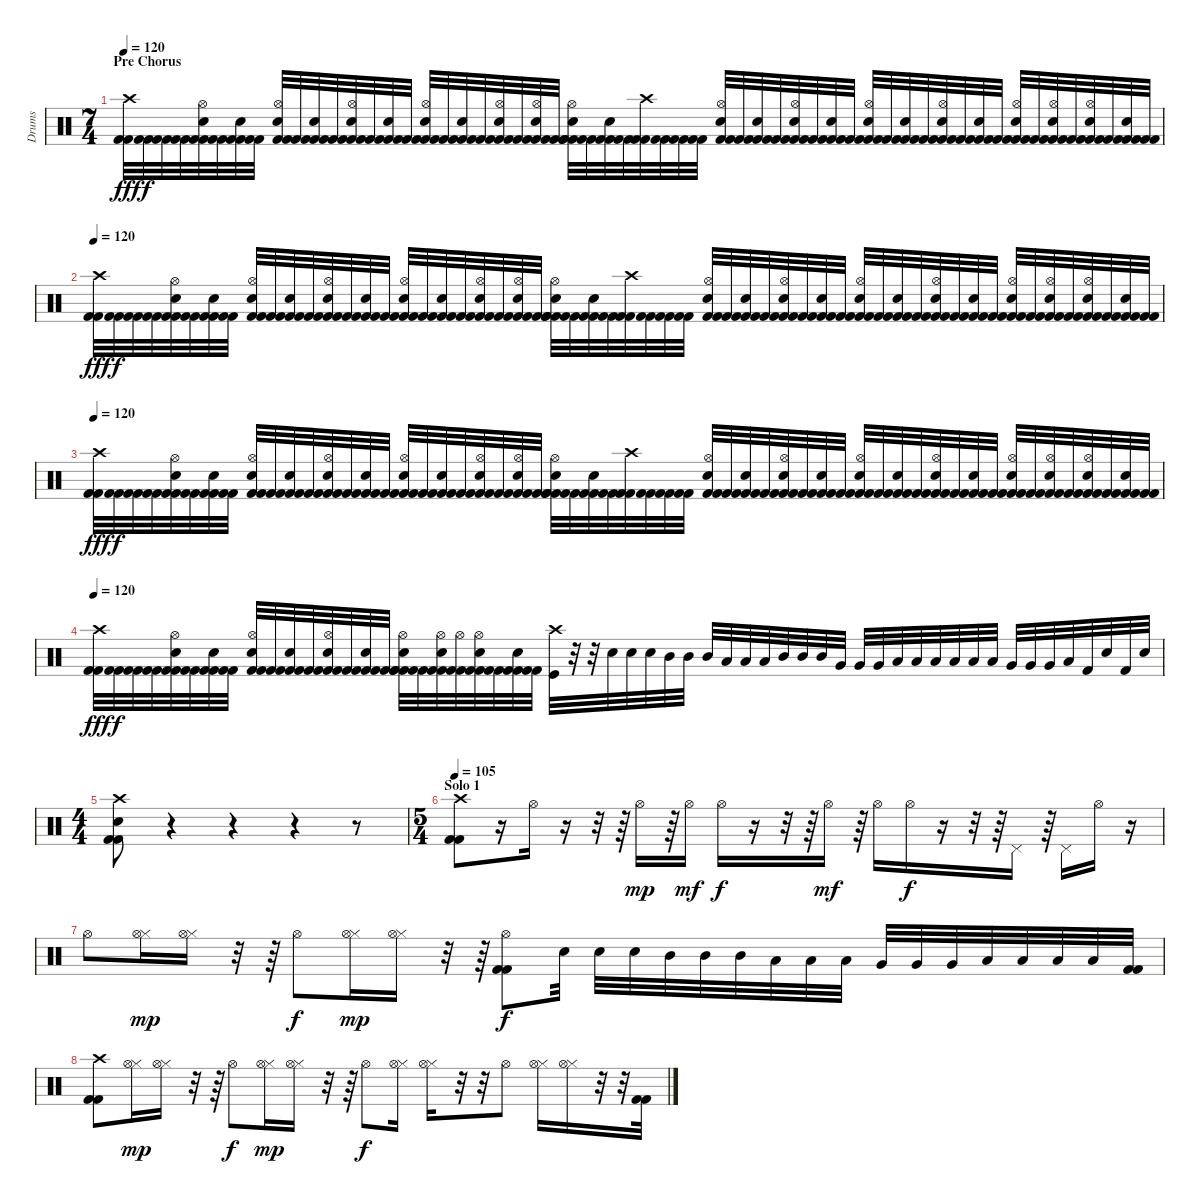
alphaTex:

\track ("Drums" "Drums") {instrument percussion}
\staff {score}
\articulation defaults
\ts (7 4)
\section ("" "Pre Chorus")
\tempo 120
\clef neutral
\ks c
("Crash high (hit)" "Kick (hit) 2" "Kick (hit) 2").32{dy fff} ("Kick (hit) 2" "Kick (hit) 2").32{dy f} ("Kick (hit) 2" "Kick (hit) 2").32 ("Kick (hit) 2" "Kick (hit) 2").32 ("Hi-Hat (open)" "Electric Snare (hit)" "Kick (hit) 2" "Kick (hit) 2").32 ("Kick (hit) 2" "Kick (hit) 2").32 ("Electric Snare (hit)" "Kick (hit) 2" "Kick (hit) 2").32 ("Kick (hit) 2" "Kick (hit) 2").32 ("Hi-Hat (open)" "Electric Snare (hit)" "Kick (hit) 2" "Kick (hit) 2").32 ("Kick (hit) 2" "Kick (hit) 2").32 ("Electric Snare (hit)" "Kick (hit) 2" "Kick (hit) 2").32 ("Kick (hit) 2" "Kick (hit) 2").32 ("Hi-Hat (open)" "Electric Snare (hit)" "Kick (hit) 2" "Kick (hit) 2").32 ("Kick (hit) 2" "Kick (hit) 2").32 ("Electric Snare (hit)" "Kick (hit) 2" "Kick (hit) 2").32 ("Kick (hit) 2" "Kick (hit) 2").32 ("Hi-Hat (open)" "Electric Snare (hit)" "Kick (hit) 2" "Kick (hit) 2").32 ("Kick (hit) 2" "Kick (hit) 2").32 ("Electric Snare (hit)" "Kick (hit) 2" "Kick (hit) 2").32 ("Kick (hit) 2" "Kick (hit) 2").32 ("Hi-Hat (open)" "Electric Snare (hit)" "Kick (hit) 2" "Kick (hit) 2").32 ("Kick (hit) 2" "Kick (hit) 2").32 ("Hi-Hat (open)" "Electric Snare (hit)" "Kick (hit) 2" "Kick (hit) 2").32 ("Kick (hit) 2" "Kick (hit) 2").32 ("Hi-Hat (open)" "Electric Snare (hit)" "Kick (hit) 2" "Kick (hit) 2").32 ("Kick (hit) 2" "Kick (hit) 2").32 ("Electric Snare (hit)" "Kick (hit) 2" "Kick (hit) 2").32 ("Kick (hit) 2" "Kick (hit) 2").32 ("Crash high (hit)" "Kick (hit) 2" "Kick (hit) 2").32 ("Kick (hit) 2" "Kick (hit) 2").32 ("Kick (hit) 2" "Kick (hit) 2").32 ("Kick (hit) 2" "Kick (hit) 2").32 ("Hi-Hat (open)" "Electric Snare (hit)" "Kick (hit) 2" "Kick (hit) 2").32 ("Kick (hit) 2" "Kick (hit) 2").32 ("Electric Snare (hit)" "Kick (hit) 2" "Kick (hit) 2").32 ("Kick (hit) 2" "Kick (hit) 2").32 ("Hi-Hat (open)" "Electric Snare (hit)" "Kick (hit) 2" "Kick (hit) 2").32 ("Kick (hit) 2" "Kick (hit) 2").32 ("Electric Snare (hit)" "Kick (hit) 2" "Kick (hit) 2").32 ("Kick (hit) 2" "Kick (hit) 2").32 ("Hi-Hat (open)" "Electric Snare (hit)" "Kick (hit) 2" "Kick (hit) 2").32 ("Kick (hit) 2" "Kick (hit) 2").32 ("Electric Snare (hit)" "Kick (hit) 2" "Kick (hit) 2").32 ("Kick (hit) 2" "Kick (hit) 2").32 ("Hi-Hat (open)" "Electric Snare (hit)" "Kick (hit) 2" "Kick (hit) 2").32 ("Kick (hit) 2" "Kick (hit) 2").32 ("Electric Snare (hit)" "Kick (hit) 2" "Kick (hit) 2").32 ("Kick (hit) 2" "Kick (hit) 2").32 ("Hi-Hat (open)" "Electric Snare (hit)" "Kick (hit) 2" "Kick (hit) 2").32 ("Kick (hit) 2" "Kick (hit) 2").32 ("Hi-Hat (open)" "Electric Snare (hit)" "Kick (hit) 2" "Kick (hit) 2").32 ("Kick (hit) 2" "Kick (hit) 2").32 ("Hi-Hat (open)" "Electric Snare (hit)" "Kick (hit) 2" "Kick (hit) 2").32 ("Kick (hit) 2" "Kick (hit) 2").32 ("Electric Snare (hit)" "Kick (hit) 2" "Kick (hit) 2").32 ("Kick (hit) 2" "Kick (hit) 2").32 |
\tempo 120
("Crash high (hit)" "Kick (hit) 2" "Kick (hit) 2").32{dy fff} ("Kick (hit) 2" "Kick (hit) 2").32{dy f} ("Kick (hit) 2" "Kick (hit) 2").32 ("Kick (hit) 2" "Kick (hit) 2").32 ("Hi-Hat (open)" "Electric Snare (hit)" "Kick (hit) 2" "Kick (hit) 2").32 ("Kick (hit) 2" "Kick (hit) 2").32 ("Electric Snare (hit)" "Kick (hit) 2" "Kick (hit) 2").32 ("Kick (hit) 2" "Kick (hit) 2").32 ("Hi-Hat (open)" "Electric Snare (hit)" "Kick (hit) 2" "Kick (hit) 2").32 ("Kick (hit) 2" "Kick (hit) 2").32 ("Electric Snare (hit)" "Kick (hit) 2" "Kick (hit) 2").32 ("Kick (hit) 2" "Kick (hit) 2").32 ("Hi-Hat (open)" "Electric Snare (hit)" "Kick (hit) 2" "Kick (hit) 2").32 ("Kick (hit) 2" "Kick (hit) 2").32 ("Electric Snare (hit)" "Kick (hit) 2" "Kick (hit) 2").32 ("Kick (hit) 2" "Kick (hit) 2").32 ("Hi-Hat (open)" "Electric Snare (hit)" "Kick (hit) 2" "Kick (hit) 2").32 ("Kick (hit) 2" "Kick (hit) 2").32 ("Electric Snare (hit)" "Kick (hit) 2" "Kick (hit) 2").32 ("Kick (hit) 2" "Kick (hit) 2").32 ("Hi-Hat (open)" "Electric Snare (hit)" "Kick (hit) 2" "Kick (hit) 2").32 ("Kick (hit) 2" "Kick (hit) 2").32 ("Hi-Hat (open)" "Electric Snare (hit)" "Kick (hit) 2" "Kick (hit) 2").32 ("Kick (hit) 2" "Kick (hit) 2").32 ("Hi-Hat (open)" "Electric Snare (hit)" "Kick (hit) 2" "Kick (hit) 2").32 ("Kick (hit) 2" "Kick (hit) 2").32 ("Electric Snare (hit)" "Kick (hit) 2" "Kick (hit) 2").32 ("Kick (hit) 2" "Kick (hit) 2").32 ("Crash high (hit)" "Kick (hit) 2" "Kick (hit) 2").32 ("Kick (hit) 2" "Kick (hit) 2").32 ("Kick (hit) 2" "Kick (hit) 2").32 ("Kick (hit) 2" "Kick (hit) 2").32 ("Hi-Hat (open)" "Electric Snare (hit)" "Kick (hit) 2" "Kick (hit) 2").32 ("Kick (hit) 2" "Kick (hit) 2").32 ("Electric Snare (hit)" "Kick (hit) 2" "Kick (hit) 2").32 ("Kick (hit) 2" "Kick (hit) 2").32 ("Hi-Hat (open)" "Electric Snare (hit)" "Kick (hit) 2" "Kick (hit) 2").32 ("Kick (hit) 2" "Kick (hit) 2").32 ("Electric Snare (hit)" "Kick (hit) 2" "Kick (hit) 2").32 ("Kick (hit) 2" "Kick (hit) 2").32 ("Hi-Hat (open)" "Electric Snare (hit)" "Kick (hit) 2" "Kick (hit) 2").32 ("Kick (hit) 2" "Kick (hit) 2").32 ("Electric Snare (hit)" "Kick (hit) 2" "Kick (hit) 2").32 ("Kick (hit) 2" "Kick (hit) 2").32 ("Hi-Hat (open)" "Electric Snare (hit)" "Kick (hit) 2" "Kick (hit) 2").32 ("Kick (hit) 2" "Kick (hit) 2").32 ("Electric Snare (hit)" "Kick (hit) 2" "Kick (hit) 2").32 ("Kick (hit) 2" "Kick (hit) 2").32 ("Hi-Hat (open)" "Electric Snare (hit)" "Kick (hit) 2" "Kick (hit) 2").32 ("Kick (hit) 2" "Kick (hit) 2").32 ("Hi-Hat (open)" "Electric Snare (hit)" "Kick (hit) 2" "Kick (hit) 2").32 ("Kick (hit) 2" "Kick (hit) 2").32 ("Hi-Hat (open)" "Electric Snare (hit)" "Kick (hit) 2" "Kick (hit) 2").32 ("Kick (hit) 2" "Kick (hit) 2").32 ("Electric Snare (hit)" "Kick (hit) 2" "Kick (hit) 2").32 ("Kick (hit) 2" "Kick (hit) 2").32 |
\tempo 120
("Crash high (hit)" "Kick (hit) 2" "Kick (hit) 2").32{dy fff} ("Kick (hit) 2" "Kick (hit) 2").32{dy f} ("Kick (hit) 2" "Kick (hit) 2").32 ("Kick (hit) 2" "Kick (hit) 2").32 ("Hi-Hat (open)" "Electric Snare (hit)" "Kick (hit) 2" "Kick (hit) 2").32 ("Kick (hit) 2" "Kick (hit) 2").32 ("Electric Snare (hit)" "Kick (hit) 2" "Kick (hit) 2").32 ("Kick (hit) 2" "Kick (hit) 2").32 ("Hi-Hat (open)" "Electric Snare (hit)" "Kick (hit) 2" "Kick (hit) 2").32 ("Kick (hit) 2" "Kick (hit) 2").32 ("Electric Snare (hit)" "Kick (hit) 2" "Kick (hit) 2").32 ("Kick (hit) 2" "Kick (hit) 2").32 ("Hi-Hat (open)" "Electric Snare (hit)" "Kick (hit) 2" "Kick (hit) 2").32 ("Kick (hit) 2" "Kick (hit) 2").32 ("Electric Snare (hit)" "Kick (hit) 2" "Kick (hit) 2").32 ("Kick (hit) 2" "Kick (hit) 2").32 ("Hi-Hat (open)" "Electric Snare (hit)" "Kick (hit) 2" "Kick (hit) 2").32 ("Kick (hit) 2" "Kick (hit) 2").32 ("Electric Snare (hit)" "Kick (hit) 2" "Kick (hit) 2").32 ("Kick (hit) 2" "Kick (hit) 2").32 ("Hi-Hat (open)" "Electric Snare (hit)" "Kick (hit) 2" "Kick (hit) 2").32 ("Kick (hit) 2" "Kick (hit) 2").32 ("Hi-Hat (open)" "Electric Snare (hit)" "Kick (hit) 2" "Kick (hit) 2").32 ("Kick (hit) 2" "Kick (hit) 2").32 ("Hi-Hat (open)" "Electric Snare (hit)" "Kick (hit) 2" "Kick (hit) 2").32 ("Kick (hit) 2" "Kick (hit) 2").32 ("Electric Snare (hit)" "Kick (hit) 2" "Kick (hit) 2").32 ("Kick (hit) 2" "Kick (hit) 2").32 ("Crash high (hit)" "Kick (hit) 2" "Kick (hit) 2").32 ("Kick (hit) 2" "Kick (hit) 2").32 ("Kick (hit) 2" "Kick (hit) 2").32 ("Kick (hit) 2" "Kick (hit) 2").32 ("Hi-Hat (open)" "Electric Snare (hit)" "Kick (hit) 2" "Kick (hit) 2").32 ("Kick (hit) 2" "Kick (hit) 2").32 ("Electric Snare (hit)" "Kick (hit) 2" "Kick (hit) 2").32 ("Kick (hit) 2" "Kick (hit) 2").32 ("Hi-Hat (open)" "Electric Snare (hit)" "Kick (hit) 2" "Kick (hit) 2").32 ("Kick (hit) 2" "Kick (hit) 2").32 ("Electric Snare (hit)" "Kick (hit) 2" "Kick (hit) 2").32 ("Kick (hit) 2" "Kick (hit) 2").32 ("Hi-Hat (open)" "Electric Snare (hit)" "Kick (hit) 2" "Kick (hit) 2").32 ("Kick (hit) 2" "Kick (hit) 2").32 ("Electric Snare (hit)" "Kick (hit) 2" "Kick (hit) 2").32 ("Kick (hit) 2" "Kick (hit) 2").32 ("Hi-Hat (open)" "Electric Snare (hit)" "Kick (hit) 2" "Kick (hit) 2").32 ("Kick (hit) 2" "Kick (hit) 2").32 ("Electric Snare (hit)" "Kick (hit) 2" "Kick (hit) 2").32 ("Kick (hit) 2" "Kick (hit) 2").32 ("Hi-Hat (open)" "Electric Snare (hit)" "Kick (hit) 2" "Kick (hit) 2").32 ("Kick (hit) 2" "Kick (hit) 2").32 ("Hi-Hat (open)" "Electric Snare (hit)" "Kick (hit) 2" "Kick (hit) 2").32 ("Kick (hit) 2" "Kick (hit) 2").32 ("Hi-Hat (open)" "Electric Snare (hit)" "Kick (hit) 2" "Kick (hit) 2").32 ("Kick (hit) 2" "Kick (hit) 2").32 ("Electric Snare (hit)" "Kick (hit) 2" "Kick (hit) 2").32 ("Kick (hit) 2" "Kick (hit) 2").32 |
\tempo 120
("Crash high (hit)" "Kick (hit) 2" "Kick (hit) 2").32{dy fff} ("Kick (hit) 2" "Kick (hit) 2").32{dy f} ("Kick (hit) 2" "Kick (hit) 2").32 ("Kick (hit) 2" "Kick (hit) 2").32 ("Hi-Hat (open)" "Electric Snare (hit)" "Kick (hit) 2" "Kick (hit) 2").32 ("Kick (hit) 2" "Kick (hit) 2").32 ("Electric Snare (hit)" "Kick (hit) 2" "Kick (hit) 2").32 ("Kick (hit) 2" "Kick (hit) 2").32 ("Hi-Hat (open)" "Electric Snare (hit)" "Kick (hit) 2" "Kick (hit) 2").32 ("Kick (hit) 2" "Kick (hit) 2").32 ("Electric Snare (hit)" "Kick (hit) 2" "Kick (hit) 2").32 ("Kick (hit) 2" "Kick (hit) 2").32 ("Hi-Hat (open)" "Electric Snare (hit)" "Kick (hit) 2" "Kick (hit) 2").32 ("Kick (hit) 2" "Kick (hit) 2").32 ("Electric Snare (hit)" "Kick (hit) 2" "Kick (hit) 2").32 ("Kick (hit) 2" "Kick (hit) 2").32 ("Hi-Hat (open)" "Electric Snare (hit)" "Kick (hit) 2" "Kick (hit) 2").32 ("Kick (hit) 2" "Kick (hit) 2").32 ("Hi-Hat (open)" "Electric Snare (hit)" "Kick (hit) 2" "Kick (hit) 2").32 ("Hi-Hat (open)" "Kick (hit) 2" "Kick (hit) 2").32 ("Hi-Hat (open)" "Electric Snare (hit)" "Kick (hit) 2" "Kick (hit) 2").32 ("Kick (hit) 2" "Kick (hit) 2").32 ("Electric Snare (hit)" "Kick (hit) 2" "Kick (hit) 2").32 ("Kick (hit) 2" "Kick (hit) 2").32 ("Crash high (hit)" "Kick (hit)").32 r.32 r.32 "Electric Snare (hit)".32 "Electric Snare (hit)".32 "Electric Snare (hit)".32 "Mid Tom (hit)".32 "Mid Tom (hit)".32 "Mid Tom (hit)".32 "Low Tom (hit)".32 "Low Tom (hit)".32 "Low Tom (hit)".32 "Mid Tom (hit)".32 "Mid Tom (hit)".32 "Mid Tom (hit)".32 "Very Low Tom (hit)".32 "Very Low Tom (hit)".32 "Very Low Tom (hit)".32 "Low Tom (hit)".32 "Low Tom (hit)".32 "Low Tom (hit)".32 "Low Floor Tom (hit)".32 "Low Floor Tom (hit)".32 "Low Floor Tom (hit)".32 "Very Low Tom (hit)".32 "Very Low Tom (hit)".32 "Very Low Tom (hit)".32 "Low Floor Tom (hit)".32 "Kick (hit) 2".32 "Electric Snare (hit)".32 "Kick (hit) 2".32 "Electric Snare (hit)".32 |
\ts (4 4)
("Crash high (hit)" "Electric Snare (hit)" "Kick (hit) 2" "Kick (hit) 2").8 r.4 r.4 r.4 r.8 |
\ts (5 4)
\section ("" "Solo 1")
\tempo 105
("Crash high (hit)" "Kick (hit) 2" "Kick (hit) 2").8 r.16 "Hi-Hat (open)".16 r.16 r.32 r.64 "Hi-Hat (open)".16{dy mp} r.64 "Hi-Hat (open)".16{dy mf} "Hi-Hat (open)".16{dy f} r.16 r.32 r.64 "Hi-Hat (open)".16{dy mf} r.64 "Hi-Hat (open)".16 "Hi-Hat (open)".16{dy f} r.16 r.32 r.64 "Pedal Hi-Hat (hit)".16 r.64 "Pedal Hi-Hat (hit)".16 "Hi-Hat (open)".16 r.16 |
"Hi-Hat (open)".8 ("Hi-Hat (closed)" "Hi-Hat (open)").16{dy mp} ("Hi-Hat (closed)" "Hi-Hat (open)").16 r.32 r.64 "Hi-Hat (open)".8{dy f} ("Hi-Hat (closed)" "Hi-Hat (open)").16{dy mp} ("Hi-Hat (closed)" "Hi-Hat (open)").16 r.32 r.64 ("Hi-Hat (open)" "Kick (hit) 2" "Kick (hit) 2").8{dy f} "Electric Snare (hit)".32 "Electric Snare (hit)".32 "Electric Snare (hit)".32 "Mid Tom (hit)".32 "Mid Tom (hit)".32 "Mid Tom (hit)".32 "Low Tom (hit)".32 "Low Tom (hit)".32 "Low Tom (hit)".32 "Very Low Tom (hit)".32 "Very Low Tom (hit)".32 "Very Low Tom (hit)".32 "Low Floor Tom (hit)".32 "Low Floor Tom (hit)".32 "Low Floor Tom (hit)".32 "Low Tom (hit)".32 ("Kick (hit) 2" "Kick (hit) 2").32 |
("Crash high (hit)" "Kick (hit) 2" "Kick (hit) 2").8 ("Hi-Hat (closed)" "Hi-Hat (open)").16{dy mp} ("Hi-Hat (closed)" "Hi-Hat (open)").16 r.32 r.64 "Hi-Hat (open)".8{dy f} ("Hi-Hat (closed)" "Hi-Hat (open)").16{dy mp} ("Hi-Hat (closed)" "Hi-Hat (open)").16 r.32 r.64 "Hi-Hat (open)".8{dy f} ("Hi-Hat (closed)" "Hi-Hat (open)").16 ("Hi-Hat (closed)" "Hi-Hat (open)").16 r.32 r.32 "Hi-Hat (open)".8 ("Hi-Hat (closed)" "Hi-Hat (open)").16 ("Hi-Hat (closed)" "Hi-Hat (open)").16 r.32 r.32 ("Kick (hit) 2" "Kick (hit) 2").32
